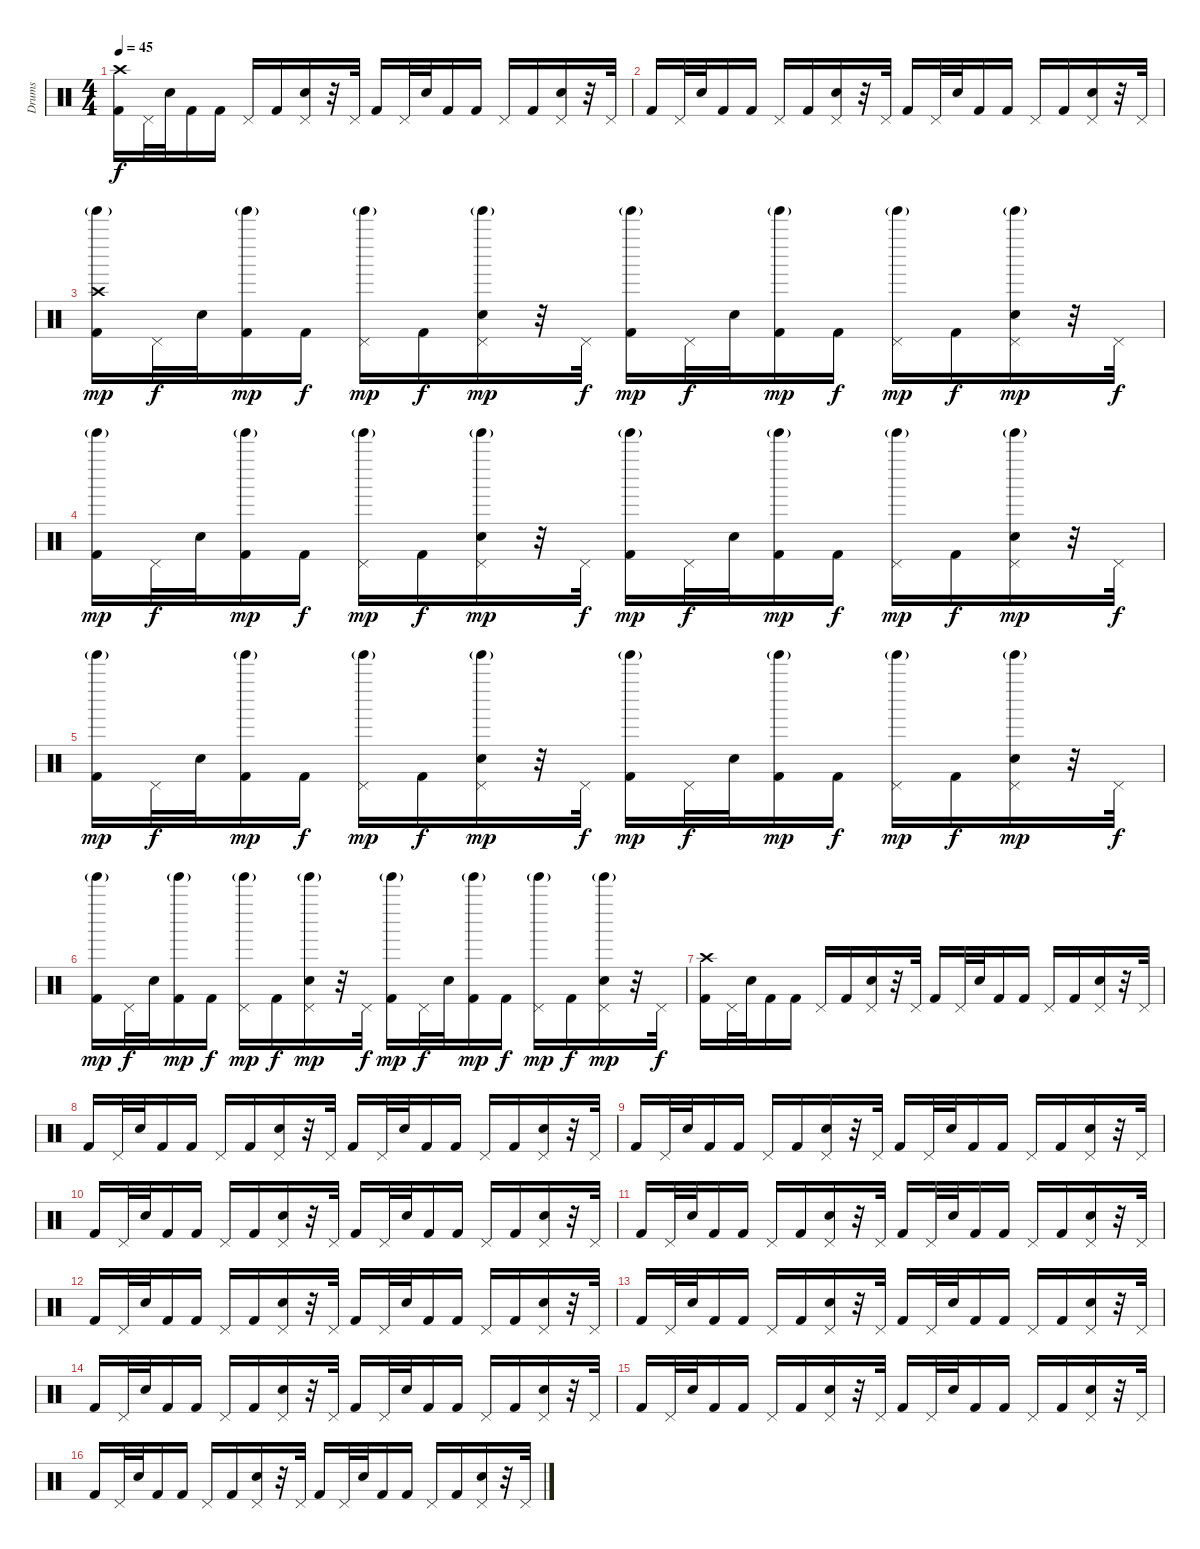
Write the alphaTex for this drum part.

\track ("Drums" "Drums") {instrument percussion}
\staff {score}
\articulation defaults
\ts (4 4)
\tempo 45
\clef neutral
\ks c
("Crash high (hit)" "Kick (hit) 2").16{dy f} "Pedal Hi-Hat (hit)".32 "Hand Clap (hit)".32 "Kick (hit) 2".16 "Kick (hit) 2".16 "Pedal Hi-Hat (hit)".16 "Kick (hit) 2".16 ("Pedal Hi-Hat (hit)" "Hand Clap (hit)").16 r.32 "Pedal Hi-Hat (hit)".32 "Kick (hit) 2".16 "Pedal Hi-Hat (hit)".32 "Hand Clap (hit)".32 "Kick (hit) 2".16 "Kick (hit) 2".16 "Pedal Hi-Hat (hit)".16 "Kick (hit) 2".16 ("Pedal Hi-Hat (hit)" "Hand Clap (hit)").16 r.32 "Pedal Hi-Hat (hit)".32 |
"Kick (hit) 2".16 "Pedal Hi-Hat (hit)".32 "Hand Clap (hit)".32 "Kick (hit) 2".16 "Kick (hit) 2".16 "Pedal Hi-Hat (hit)".16 "Kick (hit) 2".16 ("Pedal Hi-Hat (hit)" "Hand Clap (hit)").16 r.32 "Pedal Hi-Hat (hit)".32 "Kick (hit) 2".16 "Pedal Hi-Hat (hit)".32 "Hand Clap (hit)".32 "Kick (hit) 2".16 "Kick (hit) 2".16 "Pedal Hi-Hat (hit)".16 "Kick (hit) 2".16 ("Pedal Hi-Hat (hit)" "Hand Clap (hit)").16 r.32 "Pedal Hi-Hat (hit)".32 |
("Crash high (hit)" "Tinkle Bell (hit)"{g} "Kick (hit) 2").16{dy mp} "Pedal Hi-Hat (hit)".32{dy f} "Hand Clap (hit)".32 ("Tinkle Bell (hit)"{g} "Kick (hit) 2").16{dy mp} "Kick (hit) 2".16{dy f} ("Pedal Hi-Hat (hit)" "Tinkle Bell (hit)"{g}).16{dy mp} "Kick (hit) 2".16{dy f} ("Pedal Hi-Hat (hit)" "Hand Clap (hit)" "Tinkle Bell (hit)"{g}).16{dy mp} r.32 "Pedal Hi-Hat (hit)".32{dy f} ("Tinkle Bell (hit)"{g} "Kick (hit) 2").16{dy mp} "Pedal Hi-Hat (hit)".32{dy f} "Hand Clap (hit)".32 ("Tinkle Bell (hit)"{g} "Kick (hit) 2").16{dy mp} "Kick (hit) 2".16{dy f} ("Pedal Hi-Hat (hit)" "Tinkle Bell (hit)"{g}).16{dy mp} "Kick (hit) 2".16{dy f} ("Pedal Hi-Hat (hit)" "Hand Clap (hit)" "Tinkle Bell (hit)"{g}).16{dy mp} r.32 "Pedal Hi-Hat (hit)".32{dy f} |
("Tinkle Bell (hit)"{g} "Kick (hit) 2").16{dy mp} "Pedal Hi-Hat (hit)".32{dy f} "Hand Clap (hit)".32 ("Tinkle Bell (hit)"{g} "Kick (hit) 2").16{dy mp} "Kick (hit) 2".16{dy f} ("Pedal Hi-Hat (hit)" "Tinkle Bell (hit)"{g}).16{dy mp} "Kick (hit) 2".16{dy f} ("Pedal Hi-Hat (hit)" "Hand Clap (hit)" "Tinkle Bell (hit)"{g}).16{dy mp} r.32 "Pedal Hi-Hat (hit)".32{dy f} ("Tinkle Bell (hit)"{g} "Kick (hit) 2").16{dy mp} "Pedal Hi-Hat (hit)".32{dy f} "Hand Clap (hit)".32 ("Tinkle Bell (hit)"{g} "Kick (hit) 2").16{dy mp} "Kick (hit) 2".16{dy f} ("Pedal Hi-Hat (hit)" "Tinkle Bell (hit)"{g}).16{dy mp} "Kick (hit) 2".16{dy f} ("Pedal Hi-Hat (hit)" "Hand Clap (hit)" "Tinkle Bell (hit)"{g}).16{dy mp} r.32 "Pedal Hi-Hat (hit)".32{dy f} |
("Tinkle Bell (hit)"{g} "Kick (hit) 2").16{dy mp} "Pedal Hi-Hat (hit)".32{dy f} "Hand Clap (hit)".32 ("Tinkle Bell (hit)"{g} "Kick (hit) 2").16{dy mp} "Kick (hit) 2".16{dy f} ("Pedal Hi-Hat (hit)" "Tinkle Bell (hit)"{g}).16{dy mp} "Kick (hit) 2".16{dy f} ("Pedal Hi-Hat (hit)" "Hand Clap (hit)" "Tinkle Bell (hit)"{g}).16{dy mp} r.32 "Pedal Hi-Hat (hit)".32{dy f} ("Tinkle Bell (hit)"{g} "Kick (hit) 2").16{dy mp} "Pedal Hi-Hat (hit)".32{dy f} "Hand Clap (hit)".32 ("Tinkle Bell (hit)"{g} "Kick (hit) 2").16{dy mp} "Kick (hit) 2".16{dy f} ("Pedal Hi-Hat (hit)" "Tinkle Bell (hit)"{g}).16{dy mp} "Kick (hit) 2".16{dy f} ("Pedal Hi-Hat (hit)" "Hand Clap (hit)" "Tinkle Bell (hit)"{g}).16{dy mp} r.32 "Pedal Hi-Hat (hit)".32{dy f} |
("Tinkle Bell (hit)"{g} "Kick (hit) 2").16{dy mp} "Pedal Hi-Hat (hit)".32{dy f} "Hand Clap (hit)".32 ("Tinkle Bell (hit)"{g} "Kick (hit) 2").16{dy mp} "Kick (hit) 2".16{dy f} ("Pedal Hi-Hat (hit)" "Tinkle Bell (hit)"{g}).16{dy mp} "Kick (hit) 2".16{dy f} ("Pedal Hi-Hat (hit)" "Hand Clap (hit)" "Tinkle Bell (hit)"{g}).16{dy mp} r.32 "Pedal Hi-Hat (hit)".32{dy f} ("Tinkle Bell (hit)"{g} "Kick (hit) 2").16{dy mp} "Pedal Hi-Hat (hit)".32{dy f} "Hand Clap (hit)".32 ("Tinkle Bell (hit)"{g} "Kick (hit) 2").16{dy mp} "Kick (hit) 2".16{dy f} ("Pedal Hi-Hat (hit)" "Tinkle Bell (hit)"{g}).16{dy mp} "Kick (hit) 2".16{dy f} ("Pedal Hi-Hat (hit)" "Hand Clap (hit)" "Tinkle Bell (hit)"{g}).16{dy mp} r.32 "Pedal Hi-Hat (hit)".32{dy f} |
("Crash high (hit)" "Kick (hit) 2").16 "Pedal Hi-Hat (hit)".32 "Hand Clap (hit)".32 "Kick (hit) 2".16 "Kick (hit) 2".16 "Pedal Hi-Hat (hit)".16 "Kick (hit) 2".16 ("Pedal Hi-Hat (hit)" "Hand Clap (hit)").16 r.32 "Pedal Hi-Hat (hit)".32 "Kick (hit) 2".16 "Pedal Hi-Hat (hit)".32 "Hand Clap (hit)".32 "Kick (hit) 2".16 "Kick (hit) 2".16 "Pedal Hi-Hat (hit)".16 "Kick (hit) 2".16 ("Pedal Hi-Hat (hit)" "Hand Clap (hit)").16 r.32 "Pedal Hi-Hat (hit)".32 |
"Kick (hit) 2".16 "Pedal Hi-Hat (hit)".32 "Hand Clap (hit)".32 "Kick (hit) 2".16 "Kick (hit) 2".16 "Pedal Hi-Hat (hit)".16 "Kick (hit) 2".16 ("Pedal Hi-Hat (hit)" "Hand Clap (hit)").16 r.32 "Pedal Hi-Hat (hit)".32 "Kick (hit) 2".16 "Pedal Hi-Hat (hit)".32 "Hand Clap (hit)".32 "Kick (hit) 2".16 "Kick (hit) 2".16 "Pedal Hi-Hat (hit)".16 "Kick (hit) 2".16 ("Pedal Hi-Hat (hit)" "Hand Clap (hit)").16 r.32 "Pedal Hi-Hat (hit)".32 |
"Kick (hit) 2".16 "Pedal Hi-Hat (hit)".32 "Hand Clap (hit)".32 "Kick (hit) 2".16 "Kick (hit) 2".16 "Pedal Hi-Hat (hit)".16 "Kick (hit) 2".16 ("Pedal Hi-Hat (hit)" "Hand Clap (hit)").16 r.32 "Pedal Hi-Hat (hit)".32 "Kick (hit) 2".16 "Pedal Hi-Hat (hit)".32 "Hand Clap (hit)".32 "Kick (hit) 2".16 "Kick (hit) 2".16 "Pedal Hi-Hat (hit)".16 "Kick (hit) 2".16 ("Pedal Hi-Hat (hit)" "Hand Clap (hit)").16 r.32 "Pedal Hi-Hat (hit)".32 |
"Kick (hit) 2".16 "Pedal Hi-Hat (hit)".32 "Hand Clap (hit)".32 "Kick (hit) 2".16 "Kick (hit) 2".16 "Pedal Hi-Hat (hit)".16 "Kick (hit) 2".16 ("Pedal Hi-Hat (hit)" "Hand Clap (hit)").16 r.32 "Pedal Hi-Hat (hit)".32 "Kick (hit) 2".16 "Pedal Hi-Hat (hit)".32 "Hand Clap (hit)".32 "Kick (hit) 2".16 "Kick (hit) 2".16 "Pedal Hi-Hat (hit)".16 "Kick (hit) 2".16 ("Pedal Hi-Hat (hit)" "Hand Clap (hit)").16 r.32 "Pedal Hi-Hat (hit)".32 |
"Kick (hit) 2".16 "Pedal Hi-Hat (hit)".32 "Hand Clap (hit)".32 "Kick (hit) 2".16 "Kick (hit) 2".16 "Pedal Hi-Hat (hit)".16 "Kick (hit) 2".16 ("Pedal Hi-Hat (hit)" "Hand Clap (hit)").16 r.32 "Pedal Hi-Hat (hit)".32 "Kick (hit) 2".16 "Pedal Hi-Hat (hit)".32 "Hand Clap (hit)".32 "Kick (hit) 2".16 "Kick (hit) 2".16 "Pedal Hi-Hat (hit)".16 "Kick (hit) 2".16 ("Pedal Hi-Hat (hit)" "Hand Clap (hit)").16 r.32 "Pedal Hi-Hat (hit)".32 |
"Kick (hit) 2".16 "Pedal Hi-Hat (hit)".32 "Hand Clap (hit)".32 "Kick (hit) 2".16 "Kick (hit) 2".16 "Pedal Hi-Hat (hit)".16 "Kick (hit) 2".16 ("Pedal Hi-Hat (hit)" "Hand Clap (hit)").16 r.32 "Pedal Hi-Hat (hit)".32 "Kick (hit) 2".16 "Pedal Hi-Hat (hit)".32 "Hand Clap (hit)".32 "Kick (hit) 2".16 "Kick (hit) 2".16 "Pedal Hi-Hat (hit)".16 "Kick (hit) 2".16 ("Pedal Hi-Hat (hit)" "Hand Clap (hit)").16 r.32 "Pedal Hi-Hat (hit)".32 |
"Kick (hit) 2".16 "Pedal Hi-Hat (hit)".32 "Hand Clap (hit)".32 "Kick (hit) 2".16 "Kick (hit) 2".16 "Pedal Hi-Hat (hit)".16 "Kick (hit) 2".16 ("Pedal Hi-Hat (hit)" "Hand Clap (hit)").16 r.32 "Pedal Hi-Hat (hit)".32 "Kick (hit) 2".16 "Pedal Hi-Hat (hit)".32 "Hand Clap (hit)".32 "Kick (hit) 2".16 "Kick (hit) 2".16 "Pedal Hi-Hat (hit)".16 "Kick (hit) 2".16 ("Pedal Hi-Hat (hit)" "Hand Clap (hit)").16 r.32 "Pedal Hi-Hat (hit)".32 |
"Kick (hit) 2".16 "Pedal Hi-Hat (hit)".32 "Hand Clap (hit)".32 "Kick (hit) 2".16 "Kick (hit) 2".16 "Pedal Hi-Hat (hit)".16 "Kick (hit) 2".16 ("Pedal Hi-Hat (hit)" "Hand Clap (hit)").16 r.32 "Pedal Hi-Hat (hit)".32 "Kick (hit) 2".16 "Pedal Hi-Hat (hit)".32 "Hand Clap (hit)".32 "Kick (hit) 2".16 "Kick (hit) 2".16 "Pedal Hi-Hat (hit)".16 "Kick (hit) 2".16 ("Pedal Hi-Hat (hit)" "Hand Clap (hit)").16 r.32 "Pedal Hi-Hat (hit)".32 |
"Kick (hit) 2".16 "Pedal Hi-Hat (hit)".32 "Hand Clap (hit)".32 "Kick (hit) 2".16 "Kick (hit) 2".16 "Pedal Hi-Hat (hit)".16 "Kick (hit) 2".16 ("Pedal Hi-Hat (hit)" "Hand Clap (hit)").16 r.32 "Pedal Hi-Hat (hit)".32 "Kick (hit) 2".16 "Pedal Hi-Hat (hit)".32 "Hand Clap (hit)".32 "Kick (hit) 2".16 "Kick (hit) 2".16 "Pedal Hi-Hat (hit)".16 "Kick (hit) 2".16 ("Pedal Hi-Hat (hit)" "Hand Clap (hit)").16 r.32 "Pedal Hi-Hat (hit)".32 |
"Kick (hit) 2".16 "Pedal Hi-Hat (hit)".32 "Hand Clap (hit)".32 "Kick (hit) 2".16 "Kick (hit) 2".16 "Pedal Hi-Hat (hit)".16 "Kick (hit) 2".16 ("Pedal Hi-Hat (hit)" "Hand Clap (hit)").16 r.32 "Pedal Hi-Hat (hit)".32 "Kick (hit) 2".16 "Pedal Hi-Hat (hit)".32 "Hand Clap (hit)".32 "Kick (hit) 2".16 "Kick (hit) 2".16 "Pedal Hi-Hat (hit)".16 "Kick (hit) 2".16 ("Pedal Hi-Hat (hit)" "Hand Clap (hit)").16 r.32 "Pedal Hi-Hat (hit)".32
